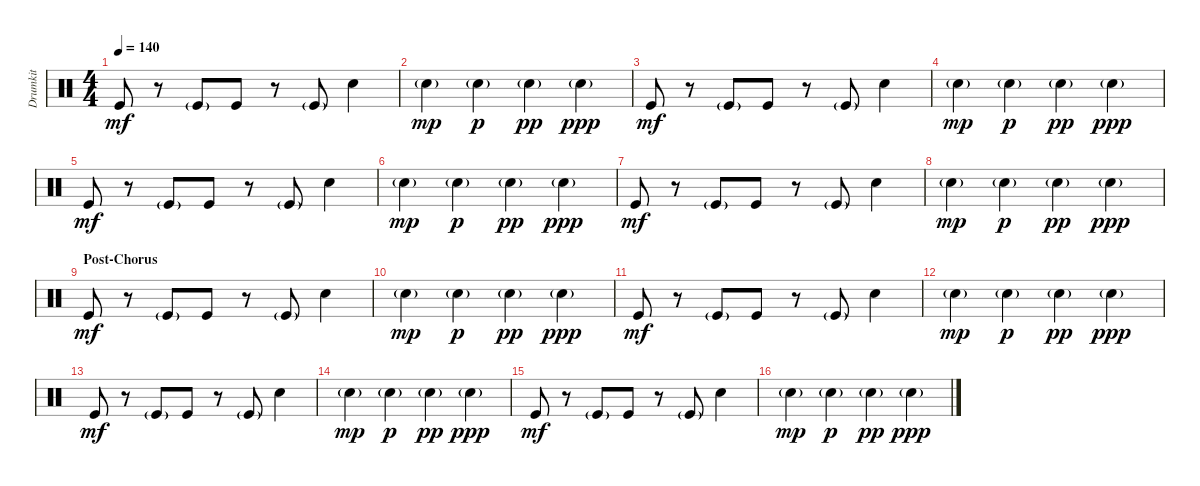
\track ("Drumkit" "Drumkit") {instrument percussion}
\staff {score}
\articulation defaults
\ts (4 4)
\tempo 140
\clef neutral
\ks c "Kick (hit)".8{dy mf}
r.8 "Kick (hit)"{g}.8 "Kick (hit)".8 r.8 "Kick (hit)"{g}.8 "Snare (hit) 2".4 |
"Snare (hit) 2"{g}.4{dy mp} "Snare (hit) 2"{g}.4{dy p} "Snare (hit) 2"{g}.4{dy pp} "Snare (hit) 2"{g}.4{dy ppp} |
"Kick (hit)".8{dy mf} r.8 "Kick (hit)"{g}.8 "Kick (hit)".8 r.8 "Kick (hit)"{g}.8 "Snare (hit) 2".4 |
"Snare (hit) 2"{g}.4{dy mp} "Snare (hit) 2"{g}.4{dy p} "Snare (hit) 2"{g}.4{dy pp} "Snare (hit) 2"{g}.4{dy ppp} |
"Kick (hit)".8{dy mf} r.8 "Kick (hit)"{g}.8 "Kick (hit)".8 r.8 "Kick (hit)"{g}.8 "Snare (hit) 2".4 |
"Snare (hit) 2"{g}.4{dy mp} "Snare (hit) 2"{g}.4{dy p} "Snare (hit) 2"{g}.4{dy pp} "Snare (hit) 2"{g}.4{dy ppp} |
"Kick (hit)".8{dy mf} r.8 "Kick (hit)"{g}.8 "Kick (hit)".8 r.8 "Kick (hit)"{g}.8 "Snare (hit) 2".4 |
"Snare (hit) 2"{g}.4{dy mp} "Snare (hit) 2"{g}.4{dy p} "Snare (hit) 2"{g}.4{dy pp} "Snare (hit) 2"{g}.4{dy ppp} |
\section ("" "Post-Chorus")
"Kick (hit)".8{dy mf} r.8 "Kick (hit)"{g}.8 "Kick (hit)".8 r.8 "Kick (hit)"{g}.8 "Snare (hit) 2".4 |
"Snare (hit) 2"{g}.4{dy mp} "Snare (hit) 2"{g}.4{dy p} "Snare (hit) 2"{g}.4{dy pp} "Snare (hit) 2"{g}.4{dy ppp} |
"Kick (hit)".8{dy mf} r.8 "Kick (hit)"{g}.8 "Kick (hit)".8 r.8 "Kick (hit)"{g}.8 "Snare (hit) 2".4 |
"Snare (hit) 2"{g}.4{dy mp} "Snare (hit) 2"{g}.4{dy p} "Snare (hit) 2"{g}.4{dy pp} "Snare (hit) 2"{g}.4{dy ppp} |
"Kick (hit)".8{dy mf} r.8 "Kick (hit)"{g}.8 "Kick (hit)".8 r.8 "Kick (hit)"{g}.8 "Snare (hit) 2".4 |
"Snare (hit) 2"{g}.4{dy mp} "Snare (hit) 2"{g}.4{dy p} "Snare (hit) 2"{g}.4{dy pp} "Snare (hit) 2"{g}.4{dy ppp} |
"Kick (hit)".8{dy mf} r.8 "Kick (hit)"{g}.8 "Kick (hit)".8 r.8 "Kick (hit)"{g}.8 "Snare (hit) 2".4 |
"Snare (hit) 2"{g}.4{dy mp} "Snare (hit) 2"{g}.4{dy p} "Snare (hit) 2"{g}.4{dy pp} "Snare (hit) 2"{g}.4{dy ppp}
